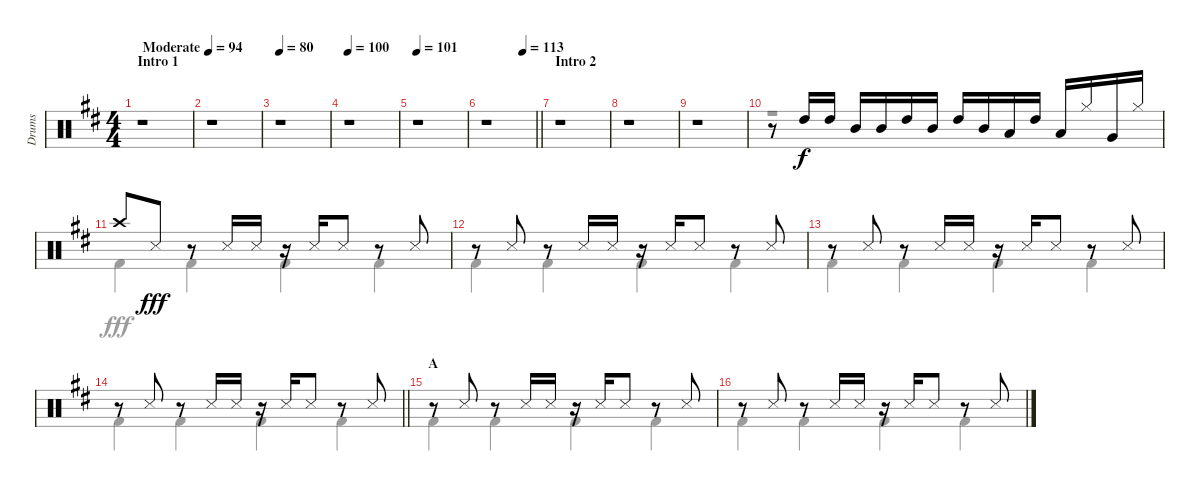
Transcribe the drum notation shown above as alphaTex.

\track ("Drums" "Drums") {instrument percussion}
\staff {score}
\articulation defaults
\voice
\ts (4 4)
\section ("" "Intro 1")
\tempo (94 "Moderate")
\clef neutral
\ks d
r.1{dy f} |
r.1 |
\tempo 80
r.1 |
\tempo 100
r.1 |
\tempo 101
r.1 |
\tempo (113 0.75)
\barLineRight lightlight
r.1 |
\section ("" "Intro 2")
r.1 |
r.1 |
r.1 |
r.8 "High Tom (hit)".16 "High Tom (hit)".16 "Mid Tom (hit)".16 "Mid Tom (hit)".16 "High Tom (hit)".16 "Mid Tom (hit)".16 "High Tom (hit)".16 "Mid Tom (hit)".16 "Low Tom (hit)".16 "High Tom (hit)".16 "Low Tom (hit)".16 "Hi-Hat (closed)".16 "Very Low Tom (hit)".16 "Hi-Hat (closed)".16 |
"Crash high (hit)".8 "Snare (side stick) 3".8{dy fff} r.8 "Snare (side stick) 3".16 "Snare (side stick) 3".16 r.16 "Snare (side stick) 3".16 "Snare (side stick) 3".8 r.8 "Snare (side stick) 3".8 |
r.8 "Snare (side stick) 3".8 r.8 "Snare (side stick) 3".16 "Snare (side stick) 3".16 r.16 "Snare (side stick) 3".16 "Snare (side stick) 3".8 r.8 "Snare (side stick) 3".8 |
r.8 "Snare (side stick) 3".8 r.8 "Snare (side stick) 3".16 "Snare (side stick) 3".16 r.16 "Snare (side stick) 3".16 "Snare (side stick) 3".8 r.8 "Snare (side stick) 3".8 |
\barLineRight lightlight
r.8 "Snare (side stick) 3".8 r.8 "Snare (side stick) 3".16 "Snare (side stick) 3".16 r.16 "Snare (side stick) 3".16 "Snare (side stick) 3".8 r.8 "Snare (side stick) 3".8 |
\section ("" "A")
r.8 "Snare (side stick) 3".8 r.8 "Snare (side stick) 3".16 "Snare (side stick) 3".16 r.16 "Snare (side stick) 3".16 "Snare (side stick) 3".8 r.8 "Snare (side stick) 3".8 |
r.8 "Snare (side stick) 3".8 r.8 "Snare (side stick) 3".16 "Snare (side stick) 3".16 r.16 "Snare (side stick) 3".16 "Snare (side stick) 3".8 r.8 "Snare (side stick) 3".8
\voice
\clef neutral
\ottava regular
\simile none
\ks d
r.1{dy fff} |
r.1 |
r.1 |
r.1 |
r.1 |
\barLineRight lightlight
r.1 |
r.1 |
r.1 |
r.1 |
r.1 |
"Kick (hit) 2".4 "Kick (hit) 2".4 "Kick (hit) 2".4 "Kick (hit) 2".4 |
"Kick (hit) 2".4 "Kick (hit) 2".4 "Kick (hit) 2".4 "Kick (hit) 2".4 |
"Kick (hit) 2".4 "Kick (hit) 2".4 "Kick (hit) 2".4 "Kick (hit) 2".4 |
\barLineRight lightlight "Kick (hit) 2".4 "Kick (hit) 2".4 "Kick (hit) 2".4 "Kick (hit) 2".4
|
"Kick (hit) 2".4 "Kick (hit) 2".4 "Kick (hit) 2".4 "Kick (hit) 2".4 |
"Kick (hit) 2".4 "Kick (hit) 2".4 "Kick (hit) 2".4 "Kick (hit) 2".4
